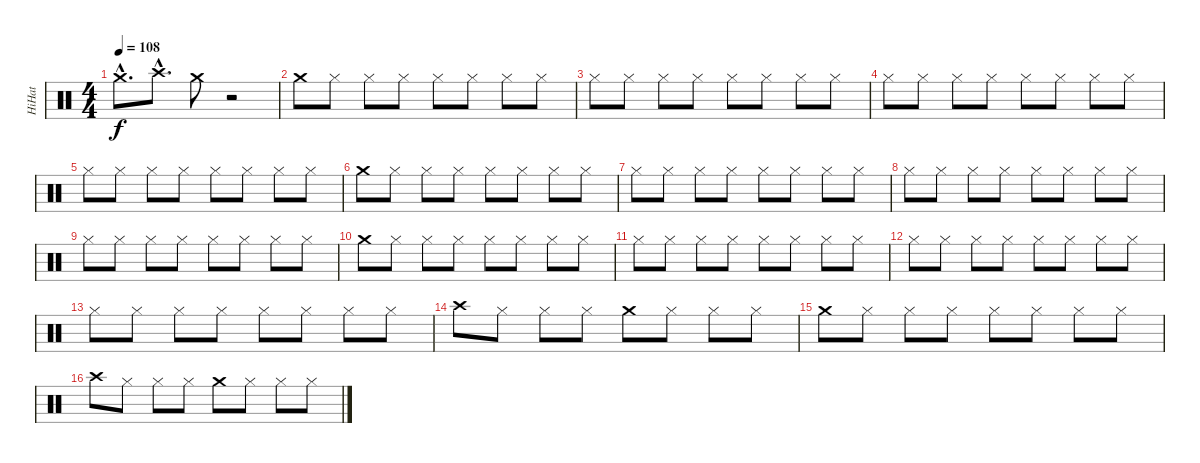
\track ("HiHat" "HiHat") {instrument percussion}
\staff {score}
\articulation defaults
\ts (4 4)
\tempo 108
\clef neutral
\ks c "Crash medium (hit)"{hac}.8{d dy f} "Crash high (hit)"{hac}.8{d} "Crash medium (hit)".8
r.2 |
"Crash medium (hit)".8 "Hi-Hat (closed)".8 "Hi-Hat (closed)".8 "Hi-Hat (closed)".8 "Hi-Hat (closed)".8 "Hi-Hat (closed)".8 "Hi-Hat (closed)".8 "Hi-Hat (closed)".8 |
"Hi-Hat (closed)".8 "Hi-Hat (closed)".8 "Hi-Hat (closed)".8 "Hi-Hat (closed)".8 "Hi-Hat (closed)".8 "Hi-Hat (closed)".8 "Hi-Hat (closed)".8 "Hi-Hat (closed)".8 |
"Hi-Hat (closed)".8 "Hi-Hat (closed)".8 "Hi-Hat (closed)".8 "Hi-Hat (closed)".8 "Hi-Hat (closed)".8 "Hi-Hat (closed)".8 "Hi-Hat (closed)".8 "Hi-Hat (closed)".8 |
"Hi-Hat (closed)".8 "Hi-Hat (closed)".8 "Hi-Hat (closed)".8 "Hi-Hat (closed)".8 "Hi-Hat (closed)".8 "Hi-Hat (closed)".8 "Hi-Hat (closed)".8 "Hi-Hat (closed)".8 |
"Crash medium (hit)".8 "Hi-Hat (closed)".8 "Hi-Hat (closed)".8 "Hi-Hat (closed)".8 "Hi-Hat (closed)".8 "Hi-Hat (closed)".8 "Hi-Hat (closed)".8 "Hi-Hat (closed)".8 |
"Hi-Hat (closed)".8 "Hi-Hat (closed)".8 "Hi-Hat (closed)".8 "Hi-Hat (closed)".8 "Hi-Hat (closed)".8 "Hi-Hat (closed)".8 "Hi-Hat (closed)".8 "Hi-Hat (closed)".8 |
"Hi-Hat (closed)".8 "Hi-Hat (closed)".8 "Hi-Hat (closed)".8 "Hi-Hat (closed)".8 "Hi-Hat (closed)".8 "Hi-Hat (closed)".8 "Hi-Hat (closed)".8 "Hi-Hat (closed)".8 |
"Hi-Hat (closed)".8 "Hi-Hat (closed)".8 "Hi-Hat (closed)".8 "Hi-Hat (closed)".8 "Hi-Hat (closed)".8 "Hi-Hat (closed)".8 "Hi-Hat (closed)".8 "Hi-Hat (closed)".8 |
"Crash medium (hit)".8 "Hi-Hat (closed)".8 "Hi-Hat (closed)".8 "Hi-Hat (closed)".8 "Hi-Hat (closed)".8 "Hi-Hat (closed)".8 "Hi-Hat (closed)".8 "Hi-Hat (closed)".8 |
"Hi-Hat (closed)".8 "Hi-Hat (closed)".8 "Hi-Hat (closed)".8 "Hi-Hat (closed)".8 "Hi-Hat (closed)".8 "Hi-Hat (closed)".8 "Hi-Hat (closed)".8 "Hi-Hat (closed)".8 |
"Hi-Hat (closed)".8 "Hi-Hat (closed)".8 "Hi-Hat (closed)".8 "Hi-Hat (closed)".8 "Hi-Hat (closed)".8 "Hi-Hat (closed)".8 "Hi-Hat (closed)".8 "Hi-Hat (closed)".8 |
"Hi-Hat (closed)".8 "Hi-Hat (closed)".8 "Hi-Hat (closed)".8 "Hi-Hat (closed)".8 "Hi-Hat (closed)".8 "Hi-Hat (closed)".8 "Hi-Hat (closed)".8 "Hi-Hat (closed)".8 |
"Crash high (hit)".8 "Hi-Hat (closed)".8 "Hi-Hat (closed)".8 "Hi-Hat (closed)".8 "Crash medium (hit)".8 "Hi-Hat (closed)".8 "Hi-Hat (closed)".8 "Hi-Hat (closed)".8 |
"Crash medium (hit)".8 "Hi-Hat (closed)".8 "Hi-Hat (closed)".8 "Hi-Hat (closed)".8 "Hi-Hat (closed)".8 "Hi-Hat (closed)".8 "Hi-Hat (closed)".8 "Hi-Hat (closed)".8 |
"Crash high (hit)".8 "Hi-Hat (closed)".8 "Hi-Hat (closed)".8 "Hi-Hat (closed)".8 "Crash medium (hit)".8 "Hi-Hat (closed)".8 "Hi-Hat (closed)".8 "Hi-Hat (closed)".8
